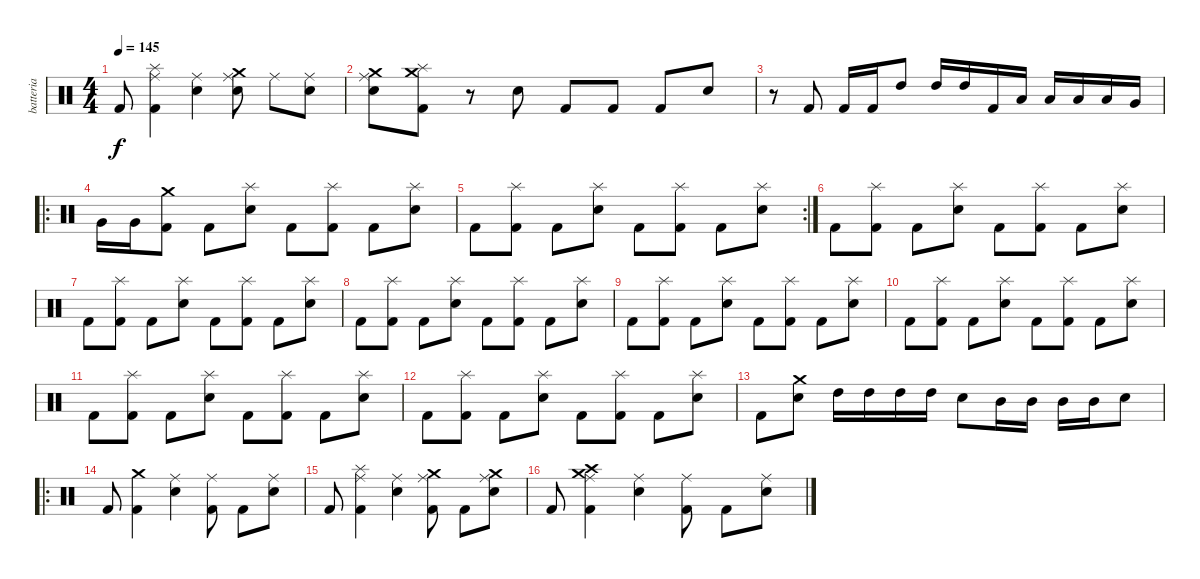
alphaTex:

\track ("batteria" "batteria") {instrument percussion}
\staff {score}
\articulation defaults
\ts (4 4)
\tempo 145
\clef neutral
\ks c "Kick (hit) 2".8{dy f}
("Splash (hit)" "Kick (hit) 2" "Ride (middle)").4 ("Ride (middle)" "Electric Snare (hit)").4 ("Crash medium (hit)" "Ride (middle)" "Electric Snare (hit)").8 "Ride (middle)".8 ("Ride (middle)" "Electric Snare (hit)").8 |
("Crash medium (hit)" "Ride (middle)" "Electric Snare (hit)").8 ("Crash medium (hit)" "Splash (hit)" "Kick (hit) 2").8 r.8 "Electric Snare (hit)".8 "Kick (hit) 2".8 "Kick (hit) 2".8 "Kick (hit) 2".8 "Electric Snare (hit)".8 |
r.8 "Kick (hit) 2".8 "Kick (hit) 2".16 "Kick (hit) 2".16 "High Tom (hit)".8 "High Tom (hit)".16 "High Tom (hit)".16 "Kick (hit) 2".16 "Low Tom (hit)".16 "Low Tom (hit)".16 "Low Tom (hit)".16 "Low Tom (hit)".16 "Very Low Tom (hit)".16 |
\ro "Very Low Tom (hit)".16 "Very Low Tom (hit)".16
("Crash medium (hit)" "Kick (hit) 2").8 "Kick (hit) 2".8 ("Splash (hit)" "Electric Snare (hit)").8 "Kick (hit) 2".8 ("Splash (hit)" "Kick (hit) 2").8 "Kick (hit) 2".8 ("Splash (hit)" "Electric Snare (hit)").8 |
\rc 2 "Kick (hit) 2".8
("Splash (hit)" "Kick (hit) 2").8 "Kick (hit) 2".8 ("Splash (hit)" "Electric Snare (hit)").8 "Kick (hit) 2".8 ("Splash (hit)" "Kick (hit) 2").8 "Kick (hit) 2".8 ("Splash (hit)" "Electric Snare (hit)").8 |
"Kick (hit) 2".8 ("Splash (hit)" "Kick (hit) 2").8 "Kick (hit) 2".8 ("Splash (hit)" "Electric Snare (hit)").8 "Kick (hit) 2".8 ("Splash (hit)" "Kick (hit) 2").8 "Kick (hit) 2".8 ("Splash (hit)" "Electric Snare (hit)").8 |
"Kick (hit) 2".8 ("Splash (hit)" "Kick (hit) 2").8 "Kick (hit) 2".8 ("Splash (hit)" "Electric Snare (hit)").8 "Kick (hit) 2".8 ("Splash (hit)" "Kick (hit) 2").8 "Kick (hit) 2".8 ("Splash (hit)" "Electric Snare (hit)").8 |
"Kick (hit) 2".8 ("Splash (hit)" "Kick (hit) 2").8 "Kick (hit) 2".8 ("Splash (hit)" "Electric Snare (hit)").8 "Kick (hit) 2".8 ("Splash (hit)" "Kick (hit) 2").8 "Kick (hit) 2".8 ("Splash (hit)" "Electric Snare (hit)").8 |
"Kick (hit) 2".8 ("Splash (hit)" "Kick (hit) 2").8 "Kick (hit) 2".8 ("Splash (hit)" "Electric Snare (hit)").8 "Kick (hit) 2".8 ("Splash (hit)" "Kick (hit) 2").8 "Kick (hit) 2".8 ("Splash (hit)" "Electric Snare (hit)").8 |
"Kick (hit) 2".8 ("Splash (hit)" "Kick (hit) 2").8 "Kick (hit) 2".8 ("Splash (hit)" "Electric Snare (hit)").8 "Kick (hit) 2".8 ("Splash (hit)" "Kick (hit) 2").8 "Kick (hit) 2".8 ("Splash (hit)" "Electric Snare (hit)").8 |
"Kick (hit) 2".8 ("Splash (hit)" "Kick (hit) 2").8 "Kick (hit) 2".8 ("Splash (hit)" "Electric Snare (hit)").8 "Kick (hit) 2".8 ("Splash (hit)" "Kick (hit) 2").8 "Kick (hit) 2".8 ("Splash (hit)" "Electric Snare (hit)").8 |
"Kick (hit) 2".8 ("Splash (hit)" "Kick (hit) 2").8 "Kick (hit) 2".8 ("Splash (hit)" "Electric Snare (hit)").8 "Kick (hit) 2".8 ("Splash (hit)" "Kick (hit) 2").8 "Kick (hit) 2".8 ("Splash (hit)" "Electric Snare (hit)").8 |
"Kick (hit) 2".8 ("Crash medium (hit)" "Electric Snare (hit)").8 "High Tom (hit)".16 "High Tom (hit)".16 "High Tom (hit)".16 "High Tom (hit)".16 "Electric Snare (hit)".8 "Mid Tom (hit)".16 "Mid Tom (hit)".16 "Mid Tom (hit)".16 "Mid Tom (hit)".16 "Electric Snare (hit)".8 |
\ro "Kick (hit) 2".8
("Crash medium (hit)" "Kick (hit) 2").4 ("Ride (middle)" "Electric Snare (hit)").4 ("Ride (middle)" "Kick (hit) 2").8 "Kick (hit) 2".8 ("Ride (middle)" "Electric Snare (hit)").8 |
"Kick (hit) 2".8 ("Splash (hit)" "Kick (hit) 2" "Ride (middle)").4 ("Ride (middle)" "Electric Snare (hit)").4 ("Crash medium (hit)" "Ride (middle)" "Kick (hit) 2").8 "Kick (hit) 2".8 ("Crash medium (hit)" "Ride (middle)" "Electric Snare (hit)").8 |
"Kick (hit) 2".8 ("Crash high (hit)" "Crash medium (hit)" "Ride (middle)" "Kick (hit) 2").4 ("Ride (middle)" "Electric Snare (hit)").4 ("Ride (middle)" "Kick (hit) 2").8 "Kick (hit) 2".8 ("Ride (middle)" "Electric Snare (hit)").8
